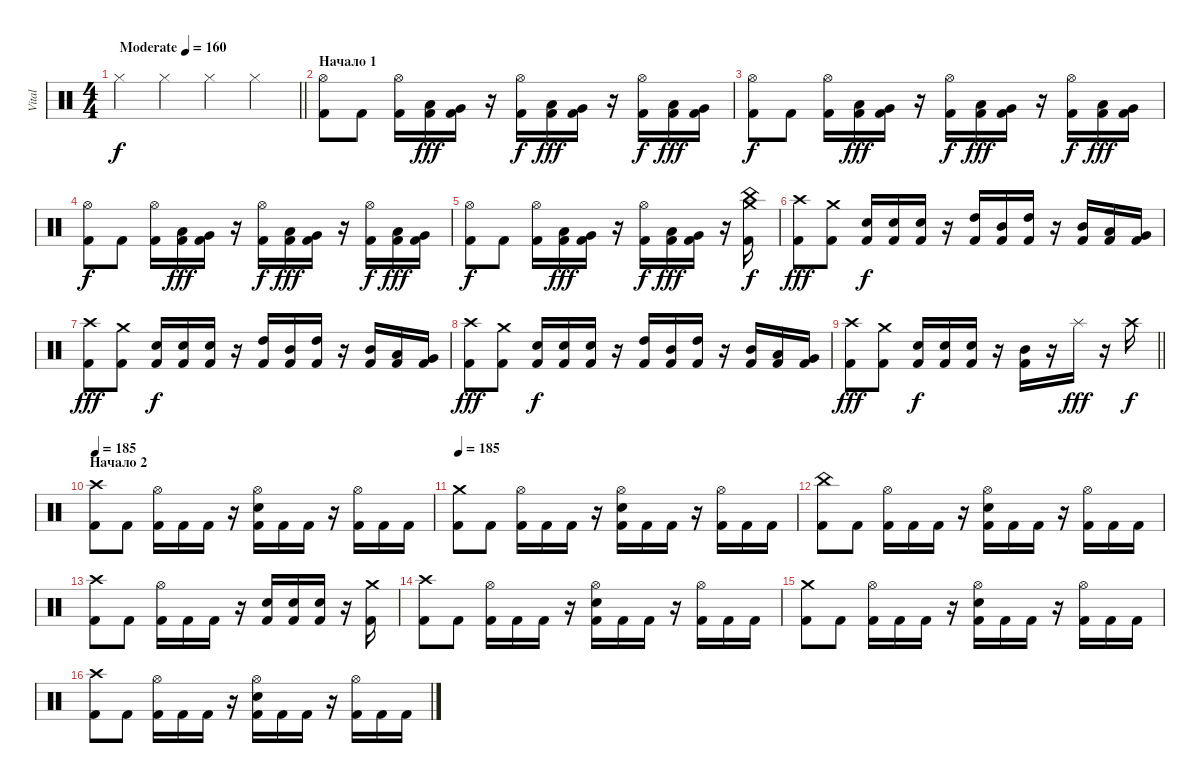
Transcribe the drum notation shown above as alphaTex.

\track ("Vital" "Vital") {instrument percussion}
\staff {score}
\articulation defaults
\ts (4 4)
\tempo (160 "Moderate")
\clef neutral
\barLineRight lightlight
\ks c "Hi-Hat (closed)".4{dy f} "Hi-Hat (closed)".4 "Hi-Hat (closed)".4 "Hi-Hat (closed)".4
|
\section ("" "Начало 1")
("Hi-Hat (open)" "Kick (hit) 2").8 "Kick (hit) 2".8 ("Hi-Hat (open)" "Kick (hit) 2").16 ("Low Tom (hit)" "Kick (hit) 2").16{dy fff} ("Very Low Tom (hit)" "Kick (hit) 2").16 r.16 ("Hi-Hat (open)" "Kick (hit) 2").16{dy f} ("Low Tom (hit)" "Kick (hit) 2").16{dy fff} ("Very Low Tom (hit)" "Kick (hit) 2").16 r.16 ("Hi-Hat (open)" "Kick (hit) 2").16{dy f} ("Low Tom (hit)" "Kick (hit) 2").16{dy fff} ("Very Low Tom (hit)" "Kick (hit) 2").16 |
("Hi-Hat (open)" "Kick (hit) 2").8{dy f} "Kick (hit) 2".8 ("Hi-Hat (open)" "Kick (hit) 2").16 ("Low Tom (hit)" "Kick (hit) 2").16{dy fff} ("Very Low Tom (hit)" "Kick (hit) 2").16 r.16 ("Hi-Hat (open)" "Kick (hit) 2").16{dy f} ("Low Tom (hit)" "Kick (hit) 2").16{dy fff} ("Very Low Tom (hit)" "Kick (hit) 2").16 r.16 ("Hi-Hat (open)" "Kick (hit) 2").16{dy f} ("Low Tom (hit)" "Kick (hit) 2").16{dy fff} ("Very Low Tom (hit)" "Kick (hit) 2").16 |
("Hi-Hat (open)" "Kick (hit) 2").8{dy f} "Kick (hit) 2".8 ("Hi-Hat (open)" "Kick (hit) 2").16 ("Low Tom (hit)" "Kick (hit) 2").16{dy fff} ("Very Low Tom (hit)" "Kick (hit) 2").16 r.16 ("Hi-Hat (open)" "Kick (hit) 2").16{dy f} ("Low Tom (hit)" "Kick (hit) 2").16{dy fff} ("Very Low Tom (hit)" "Kick (hit) 2").16 r.16 ("Hi-Hat (open)" "Kick (hit) 2").16{dy f} ("Low Tom (hit)" "Kick (hit) 2").16{dy fff} ("Very Low Tom (hit)" "Kick (hit) 2").16 |
("Hi-Hat (open)" "Kick (hit) 2").8{dy f} "Kick (hit) 2".8 ("Hi-Hat (open)" "Kick (hit) 2").16 ("Low Tom (hit)" "Kick (hit) 2").16{dy fff} ("Very Low Tom (hit)" "Kick (hit) 2").16 r.16 ("Hi-Hat (open)" "Kick (hit) 2").16{dy f} ("Low Tom (hit)" "Kick (hit) 2").16{dy fff} ("Very Low Tom (hit)" "Kick (hit) 2").16 r.16 ("Crash medium (hit)" "China (hit)" "Kick (hit) 2").16{dy f} |
("Crash high (hit)" "Kick (hit) 2").8{dy fff} ("Crash medium (hit)" "Kick (hit) 2").8 ("Snare (hit) 2" "Kick (hit) 2").16{dy f} ("Snare (hit) 2" "Kick (hit) 2").16 ("Snare (hit) 2" "Kick (hit) 2").16 r.16 ("High Tom (hit)" "Kick (hit) 2").16 ("Mid Tom (hit)" "Kick (hit) 2").16 ("High Tom (hit)" "Kick (hit) 2").16 r.16 ("Mid Tom (hit)" "Kick (hit) 2").16 ("Low Tom (hit)" "Kick (hit) 2").16 ("Very Low Tom (hit)" "Kick (hit) 2").16 |
("Crash high (hit)" "Kick (hit) 2").8{dy fff} ("Crash medium (hit)" "Kick (hit) 2").8 ("Snare (hit) 2" "Kick (hit) 2").16{dy f} ("Snare (hit) 2" "Kick (hit) 2").16 ("Snare (hit) 2" "Kick (hit) 2").16 r.16 ("High Tom (hit)" "Kick (hit) 2").16 ("Mid Tom (hit)" "Kick (hit) 2").16 ("High Tom (hit)" "Kick (hit) 2").16 r.16 ("Mid Tom (hit)" "Kick (hit) 2").16 ("Low Tom (hit)" "Kick (hit) 2").16 ("Very Low Tom (hit)" "Kick (hit) 2").16 |
("Crash high (hit)" "Kick (hit) 2").8{dy fff} ("Crash medium (hit)" "Kick (hit) 2").8 ("Snare (hit) 2" "Kick (hit) 2").16{dy f} ("Snare (hit) 2" "Kick (hit) 2").16 ("Snare (hit) 2" "Kick (hit) 2").16 r.16 ("High Tom (hit)" "Kick (hit) 2").16 ("Mid Tom (hit)" "Kick (hit) 2").16 ("High Tom (hit)" "Kick (hit) 2").16 r.16 ("Mid Tom (hit)" "Kick (hit) 2").16 ("Low Tom (hit)" "Kick (hit) 2").16 ("Very Low Tom (hit)" "Kick (hit) 2").16 |
\barLineRight lightlight
("Crash high (hit)" "Kick (hit) 2").8{dy fff} ("Crash medium (hit)" "Kick (hit) 2").8 ("Snare (hit) 2" "Kick (hit) 2").16{dy f} ("Snare (hit) 2" "Kick (hit) 2").16 ("Snare (hit) 2" "Kick (hit) 2").16 r.16 ("Mid Tom (hit)" "Kick (hit) 2").16 r.16 "Splash (hit)".16{dy fff} r.16 "Crash high (hit)".16{dy f} |
\section ("" "Начало 2")
\tempo 185
("Crash high (hit)" "Kick (hit) 2").8 "Kick (hit) 2".8 ("Hi-Hat (open)" "Kick (hit) 2").16 "Kick (hit) 2".16 "Kick (hit) 2".16 r.16 ("Hi-Hat (open)" "Snare (hit) 2" "Kick (hit) 2").16 "Kick (hit) 2".16 "Kick (hit) 2".16 r.16 ("Hi-Hat (open)" "Kick (hit) 2").16 "Kick (hit) 2".16 "Kick (hit) 2".16 |
\tempo 185
("Crash medium (hit)" "Kick (hit) 2").8 "Kick (hit) 2".8 ("Hi-Hat (open)" "Kick (hit) 2").16 "Kick (hit) 2".16 "Kick (hit) 2".16 r.16 ("Hi-Hat (open)" "Snare (hit) 2" "Kick (hit) 2").16 "Kick (hit) 2".16 "Kick (hit) 2".16 r.16 ("Hi-Hat (open)" "Kick (hit) 2").16 "Kick (hit) 2".16 "Kick (hit) 2".16 |
("China (hit)" "Kick (hit) 2").8 "Kick (hit) 2".8 ("Hi-Hat (open)" "Kick (hit) 2").16 "Kick (hit) 2".16 "Kick (hit) 2".16 r.16 ("Hi-Hat (open)" "Snare (hit) 2" "Kick (hit) 2").16 "Kick (hit) 2".16 "Kick (hit) 2".16 r.16 ("Hi-Hat (open)" "Kick (hit) 2").16 "Kick (hit) 2".16 "Kick (hit) 2".16 |
("Crash high (hit)" "Kick (hit) 2").8 "Kick (hit) 2".8 ("Hi-Hat (open)" "Kick (hit) 2").16 "Kick (hit) 2".16 "Kick (hit) 2".16 r.16 ("Snare (hit) 2" "Kick (hit) 2").16 ("Snare (hit) 2" "Kick (hit) 2").16 ("Snare (hit) 2" "Kick (hit) 2").16 r.16 ("Crash medium (hit)" "Kick (hit) 2").16 |
("Crash high (hit)" "Kick (hit) 2").8 "Kick (hit) 2".8 ("Hi-Hat (open)" "Kick (hit) 2").16 "Kick (hit) 2".16 "Kick (hit) 2".16 r.16 ("Hi-Hat (open)" "Snare (hit) 2" "Kick (hit) 2").16 "Kick (hit) 2".16 "Kick (hit) 2".16 r.16 ("Hi-Hat (open)" "Kick (hit) 2").16 "Kick (hit) 2".16 "Kick (hit) 2".16 |
("Crash medium (hit)" "Kick (hit) 2").8 "Kick (hit) 2".8 ("Hi-Hat (open)" "Kick (hit) 2").16 "Kick (hit) 2".16 "Kick (hit) 2".16 r.16 ("Hi-Hat (open)" "Snare (hit) 2" "Kick (hit) 2").16 "Kick (hit) 2".16 "Kick (hit) 2".16 r.16 ("Hi-Hat (open)" "Kick (hit) 2").16 "Kick (hit) 2".16 "Kick (hit) 2".16 |
("Crash high (hit)" "Kick (hit) 2").8 "Kick (hit) 2".8 ("Hi-Hat (open)" "Kick (hit) 2").16 "Kick (hit) 2".16 "Kick (hit) 2".16 r.16 ("Hi-Hat (open)" "Snare (hit) 2" "Kick (hit) 2").16 "Kick (hit) 2".16 "Kick (hit) 2".16 r.16 ("Hi-Hat (open)" "Kick (hit) 2").16 "Kick (hit) 2".16 "Kick (hit) 2".16
